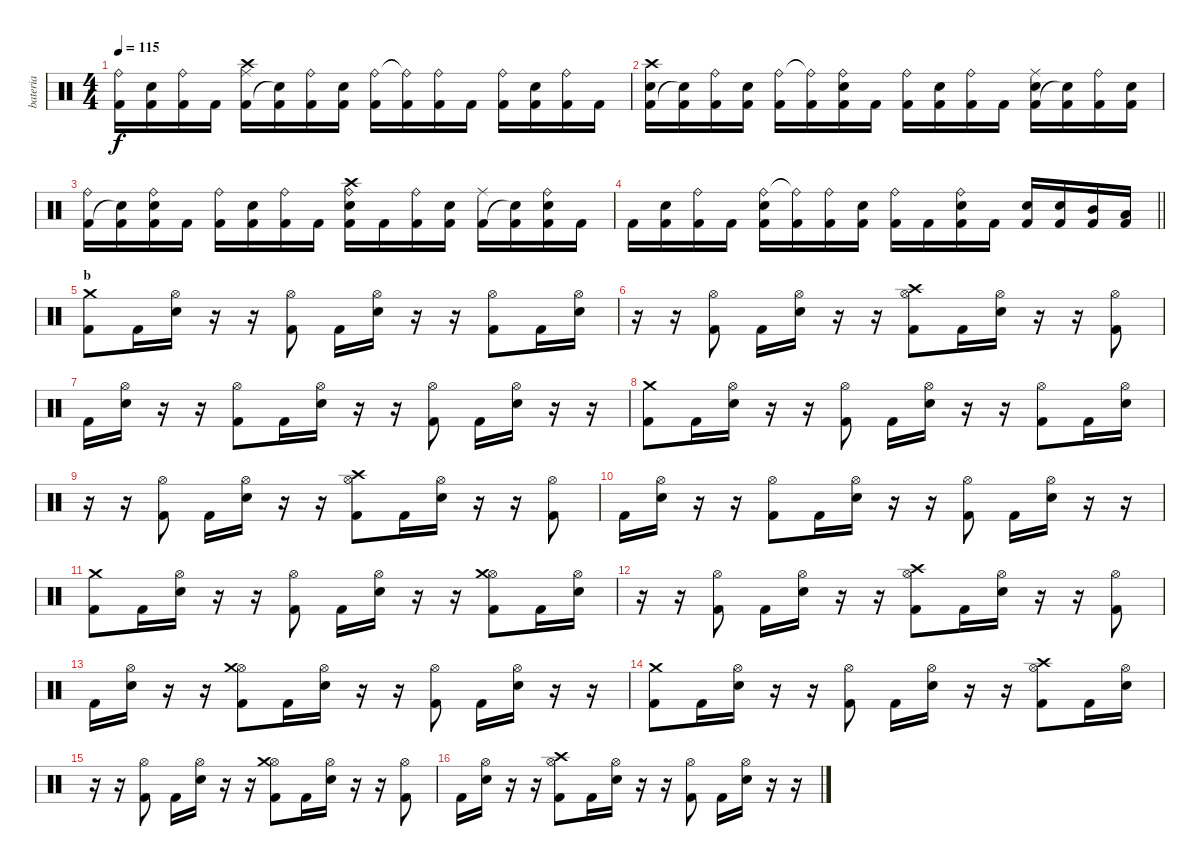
\track ("bateria" "bateria") {mute instrument percussion}
\staff {score}
\articulation defaults
\ts (4 4)
\tempo 115
\clef neutral
\ks c
("Ride (bell)" "Kick (hit) 2").16{dy f} ("Electric Snare (hit)" "Kick (hit) 2").16 ("Kick (hit) 2" "Ride (bell)").16 "Kick (hit) 2".16 ("Ride (middle)" "Kick (hit) 2" "Crash high (hit)").16 ("Kick (hit) 2" "Snare (hit)"{t}).16 ("Ride (bell)" "Kick (hit) 2").16 ("Electric Snare (hit)" "Kick (hit) 2").16 ("Ride (bell)" "Kick (hit) 2").16 ("Ride (bell)"{t} "Kick (hit) 2").16 ("Kick (hit) 2" "Ride (bell)").16 "Kick (hit) 2".16 ("Kick (hit) 2" "Ride (bell)").16 ("Kick (hit) 2" "Electric Snare (hit)").16 ("Kick (hit) 2" "Ride (bell)").16 "Kick (hit) 2".16 |
("Crash high (hit)" "Kick (hit) 2" "Electric Snare (hit)").16 ("Kick (hit) 2" "Snare (hit)"{t}).16 ("Ride (bell)" "Kick (hit) 2").16 ("Electric Snare (hit)" "Kick (hit) 2").16 ("Ride (bell)" "Kick (hit) 2").16 ("Ride (bell)"{t} "Kick (hit) 2").16 ("Kick (hit) 2" "Ride (bell)" "Electric Snare (hit)").16 "Kick (hit) 2".16 ("Ride (bell)" "Kick (hit) 2").16 ("Electric Snare (hit)" "Kick (hit) 2").16 ("Kick (hit) 2" "Ride (bell)").16 "Kick (hit) 2".16 ("Ride (middle)" "Kick (hit) 2" "Electric Snare (hit)").16 ("Kick (hit) 2" "Snare (hit)"{t}).16 ("Ride (bell)" "Kick (hit) 2").16 ("Electric Snare (hit)" "Kick (hit) 2").16 |
("Ride (bell)" "Kick (hit) 2").16 ("Kick (hit) 2" "Snare (hit)"{t}).16 ("Ride (bell)" "Kick (hit) 2" "Electric Snare (hit)").16 "Kick (hit) 2".16 ("Ride (bell)" "Kick (hit) 2").16 ("Electric Snare (hit)" "Kick (hit) 2").16 ("Kick (hit) 2" "Ride (bell)").16 "Kick (hit) 2".16 ("Ride (bell)" "Kick (hit) 2" "Electric Snare (hit)" "Crash high (hit)").16 "Kick (hit) 2".16 ("Kick (hit) 2" "Ride (bell)").16 ("Kick (hit) 2" "Electric Snare (hit)").16 ("Ride (middle)" "Kick (hit) 2").16 ("Kick (hit) 2" "Snare (hit)"{t}).16 ("Ride (bell)" "Kick (hit) 2" "Electric Snare (hit)").16 "Kick (hit) 2".16 |
\barLineRight lightlight "Kick (hit) 2".16
("Kick (hit) 2" "Electric Snare (hit)").16 ("Ride (bell)" "Kick (hit) 2").16 "Kick (hit) 2".16 ("Ride (bell)" "Kick (hit) 2" "Electric Snare (hit)").16 ("Ride (bell)"{t} "Kick (hit) 2").16 ("Kick (hit) 2" "Ride (bell)").16 ("Electric Snare (hit)" "Kick (hit) 2").16 ("Ride (bell)" "Kick (hit) 2").16 "Kick (hit) 2".16 ("Kick (hit) 2" "Ride (bell)" "Electric Snare (hit)").16 "Kick (hit) 2".16 ("Electric Snare (hit)" "Kick (hit) 2").16 ("Kick (hit) 2" "Electric Snare (hit)").16 ("Mid Tom (hit)" "Kick (hit) 2").16 ("Low Tom (hit)" "Kick (hit) 2").16 |
\section ("" "b")
("Kick (hit) 2" "Crash medium (hit)").8 "Kick (hit) 2".16 ("Electric Snare (hit)" "Hi-Hat (open)").16 r.16 r.16 ("Kick (hit) 2" "Hi-Hat (open)").8 "Kick (hit) 2".16 ("Hi-Hat (open)" "Electric Snare (hit)").16 r.16 r.16 ("Kick (hit) 2" "Hi-Hat (open)").8 "Kick (hit) 2".16 ("Hi-Hat (open)" "Electric Snare (hit)").16 |
r.16 r.16 ("Kick (hit) 2" "Hi-Hat (open)").8 "Kick (hit) 2".16 ("Hi-Hat (open)" "Electric Snare (hit)").16 r.16 r.16 ("Kick (hit) 2" "Hi-Hat (open)" "Crash high (hit)").8 "Kick (hit) 2".16 ("Hi-Hat (open)" "Electric Snare (hit)").16 r.16 r.16 ("Kick (hit) 2" "Hi-Hat (open)").8 |
"Kick (hit) 2".16 ("Electric Snare (hit)" "Hi-Hat (open)").16 r.16 r.16 ("Kick (hit) 2" "Hi-Hat (open)").8 "Kick (hit) 2".16 ("Hi-Hat (open)" "Electric Snare (hit)").16 r.16 r.16 ("Kick (hit) 2" "Hi-Hat (open)").8 "Kick (hit) 2".16 ("Hi-Hat (open)" "Electric Snare (hit)").16 r.16 r.16 |
("Kick (hit) 2" "Crash medium (hit)").8 "Kick (hit) 2".16 ("Electric Snare (hit)" "Hi-Hat (open)").16 r.16 r.16 ("Kick (hit) 2" "Hi-Hat (open)").8 "Kick (hit) 2".16 ("Hi-Hat (open)" "Electric Snare (hit)").16 r.16 r.16 ("Kick (hit) 2" "Hi-Hat (open)").8 "Kick (hit) 2".16 ("Hi-Hat (open)" "Electric Snare (hit)").16 |
r.16 r.16 ("Kick (hit) 2" "Hi-Hat (open)").8 "Kick (hit) 2".16 ("Hi-Hat (open)" "Electric Snare (hit)").16 r.16 r.16 ("Kick (hit) 2" "Hi-Hat (open)" "Crash high (hit)").8 "Kick (hit) 2".16 ("Hi-Hat (open)" "Electric Snare (hit)").16 r.16 r.16 ("Kick (hit) 2" "Hi-Hat (open)").8 |
"Kick (hit) 2".16 ("Electric Snare (hit)" "Hi-Hat (open)").16 r.16 r.16 ("Kick (hit) 2" "Hi-Hat (open)").8 "Kick (hit) 2".16 ("Hi-Hat (open)" "Electric Snare (hit)").16 r.16 r.16 ("Kick (hit) 2" "Hi-Hat (open)").8 "Kick (hit) 2".16 ("Hi-Hat (open)" "Electric Snare (hit)").16 r.16 r.16 |
("Kick (hit) 2" "Crash medium (hit)").8 "Kick (hit) 2".16 ("Electric Snare (hit)" "Hi-Hat (open)").16 r.16 r.16 ("Kick (hit) 2" "Hi-Hat (open)").8 "Kick (hit) 2".16 ("Hi-Hat (open)" "Electric Snare (hit)").16 r.16 r.16 ("Kick (hit) 2" "Hi-Hat (open)" "Crash medium (hit)").8 "Kick (hit) 2".16 ("Hi-Hat (open)" "Electric Snare (hit)").16 |
r.16 r.16 ("Kick (hit) 2" "Hi-Hat (open)").8 "Kick (hit) 2".16 ("Hi-Hat (open)" "Electric Snare (hit)").16 r.16 r.16 ("Kick (hit) 2" "Hi-Hat (open)" "Crash high (hit)").8 "Kick (hit) 2".16 ("Hi-Hat (open)" "Electric Snare (hit)").16 r.16 r.16 ("Kick (hit) 2" "Hi-Hat (open)").8 |
"Kick (hit) 2".16 ("Electric Snare (hit)" "Hi-Hat (open)").16 r.16 r.16 ("Kick (hit) 2" "Hi-Hat (open)" "Crash medium (hit)").8 "Kick (hit) 2".16 ("Hi-Hat (open)" "Electric Snare (hit)").16 r.16 r.16 ("Kick (hit) 2" "Hi-Hat (open)").8 "Kick (hit) 2".16 ("Hi-Hat (open)" "Electric Snare (hit)").16 r.16 r.16 |
("Kick (hit) 2" "Crash medium (hit)").8 "Kick (hit) 2".16 ("Electric Snare (hit)" "Hi-Hat (open)").16 r.16 r.16 ("Kick (hit) 2" "Hi-Hat (open)").8 "Kick (hit) 2".16 ("Hi-Hat (open)" "Electric Snare (hit)").16 r.16 r.16 ("Kick (hit) 2" "Hi-Hat (open)" "Crash high (hit)").8 "Kick (hit) 2".16 ("Hi-Hat (open)" "Electric Snare (hit)").16 |
r.16 r.16 ("Kick (hit) 2" "Hi-Hat (open)").8 "Kick (hit) 2".16 ("Hi-Hat (open)" "Electric Snare (hit)").16 r.16 r.16 ("Kick (hit) 2" "Hi-Hat (open)" "Crash medium (hit)").8 "Kick (hit) 2".16 ("Hi-Hat (open)" "Electric Snare (hit)").16 r.16 r.16 ("Kick (hit) 2" "Hi-Hat (open)").8 |
"Kick (hit) 2".16 ("Electric Snare (hit)" "Hi-Hat (open)").16 r.16 r.16 ("Kick (hit) 2" "Hi-Hat (open)" "Crash high (hit)").8 "Kick (hit) 2".16 ("Hi-Hat (open)" "Electric Snare (hit)").16 r.16 r.16 ("Kick (hit) 2" "Hi-Hat (open)").8 "Kick (hit) 2".16 ("Hi-Hat (open)" "Electric Snare (hit)").16 r.16 r.16
